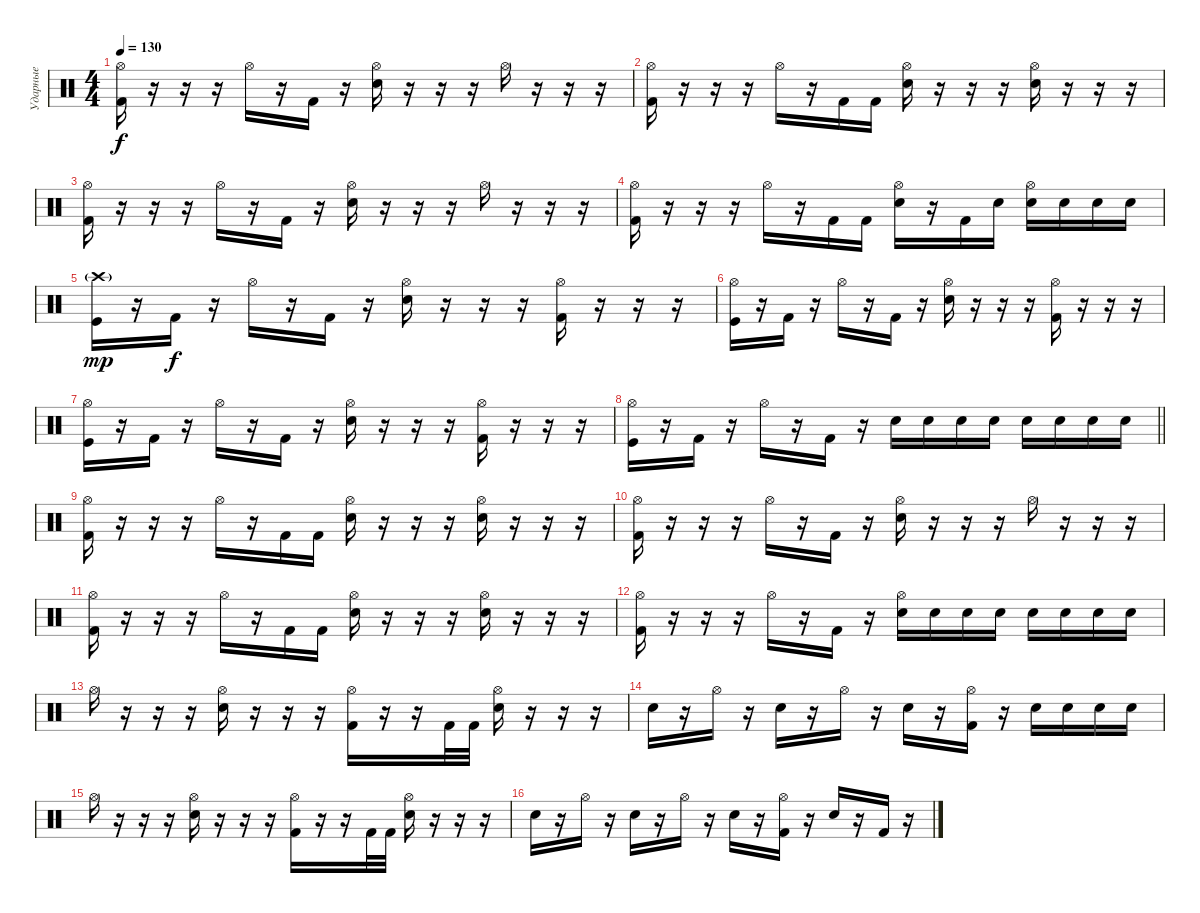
\track ("Ударные" "Ударные") {instrument percussion}
\staff {score}
\articulation defaults
\ts (4 4)
\tempo 130
\clef neutral
\ks c
("Hi-Hat (open)" "Kick (hit) 2").16{dy f} r.16 r.16 r.16 "Hi-Hat (open)".16 r.16 "Kick (hit) 2".16 r.16 ("Hi-Hat (open)" "Electric Snare (hit)").16 r.16 r.16 r.16 "Hi-Hat (open)".16 r.16 r.16 r.16 |
("Hi-Hat (open)" "Kick (hit) 2").16 r.16 r.16 r.16 "Hi-Hat (open)".16 r.16 "Kick (hit) 2".16 "Kick (hit) 2".16 ("Hi-Hat (open)" "Electric Snare (hit)").16 r.16 r.16 r.16 ("Hi-Hat (open)" "Electric Snare (hit)").16 r.16 r.16 r.16 |
("Hi-Hat (open)" "Kick (hit) 2").16 r.16 r.16 r.16 "Hi-Hat (open)".16 r.16 "Kick (hit) 2".16 r.16 ("Hi-Hat (open)" "Electric Snare (hit)").16 r.16 r.16 r.16 "Hi-Hat (open)".16 r.16 r.16 r.16 |
("Hi-Hat (open)" "Kick (hit) 2").16 r.16 r.16 r.16 "Hi-Hat (open)".16 r.16 "Kick (hit) 2".16 "Kick (hit) 2".16 ("Hi-Hat (open)" "Electric Snare (hit)").16 r.16 "Kick (hit) 2".16 "Electric Snare (hit)".16 ("Hi-Hat (open)" "Electric Snare (hit)").16 "Electric Snare (hit)".16 "Electric Snare (hit)".16 "Electric Snare (hit)".16 |
("Crash high (hit)"{g} "Kick (hit)").16{dy mp} r.16 "Kick (hit) 2".16{dy f} r.16 "Hi-Hat (open)".16 r.16 "Kick (hit) 2".16 r.16 ("Hi-Hat (open)" "Electric Snare (hit)").16 r.16 r.16 r.16 ("Hi-Hat (open)" "Kick (hit) 2").16 r.16 r.16 r.16 |
("Hi-Hat (open)" "Kick (hit)").16 r.16 "Kick (hit) 2".16 r.16 "Hi-Hat (open)".16 r.16 "Kick (hit) 2".16 r.16 ("Hi-Hat (open)" "Electric Snare (hit)").16 r.16 r.16 r.16 ("Hi-Hat (open)" "Kick (hit) 2").16 r.16 r.16 r.16 |
("Hi-Hat (open)" "Kick (hit)").16 r.16 "Kick (hit) 2".16 r.16 "Hi-Hat (open)".16 r.16 "Kick (hit) 2".16 r.16 ("Hi-Hat (open)" "Electric Snare (hit)").16 r.16 r.16 r.16 ("Hi-Hat (open)" "Kick (hit) 2").16 r.16 r.16 r.16 |
\barLineRight lightlight
("Hi-Hat (open)" "Kick (hit)").16 r.16 "Kick (hit) 2".16 r.16 "Hi-Hat (open)".16 r.16 "Kick (hit) 2".16 r.16 "Snare (hit) 2".16 "Electric Snare (hit)".16 "Electric Snare (hit)".16 "Electric Snare (hit)".16 "Snare (hit) 2".16 "Snare (hit) 2".16 "Snare (hit) 2".16 "Snare (hit) 2".16 |
("Hi-Hat (open)" "Kick (hit) 2").16 r.16 r.16 r.16 "Hi-Hat (open)".16 r.16 "Kick (hit) 2".16 "Kick (hit) 2".16 ("Hi-Hat (open)" "Electric Snare (hit)").16 r.16 r.16 r.16 ("Hi-Hat (open)" "Electric Snare (hit)").16 r.16 r.16 r.16 |
("Hi-Hat (open)" "Kick (hit) 2").16 r.16 r.16 r.16 "Hi-Hat (open)".16 r.16 "Kick (hit) 2".16 r.16 ("Hi-Hat (open)" "Electric Snare (hit)").16 r.16 r.16 r.16 "Hi-Hat (open)".16 r.16 r.16 r.16 |
("Hi-Hat (open)" "Kick (hit) 2").16 r.16 r.16 r.16 "Hi-Hat (open)".16 r.16 "Kick (hit) 2".16 "Kick (hit) 2".16 ("Hi-Hat (open)" "Electric Snare (hit)").16 r.16 r.16 r.16 ("Hi-Hat (open)" "Electric Snare (hit)").16 r.16 r.16 r.16 |
("Hi-Hat (open)" "Kick (hit) 2").16 r.16 r.16 r.16 "Hi-Hat (open)".16 r.16 "Kick (hit) 2".16 r.16 ("Hi-Hat (open)" "Electric Snare (hit)").16 "Electric Snare (hit)".16 "Electric Snare (hit)".16 "Electric Snare (hit)".16 "Snare (hit) 2".16 "Snare (hit) 2".16 "Snare (hit) 2".16 "Snare (hit) 2".16 |
"Hi-Hat (open)".16 r.16 r.16 r.16 ("Hi-Hat (open)" "Electric Snare (hit)").16 r.16 r.16 r.16 ("Hi-Hat (open)" "Kick (hit) 2").16 r.16 r.16 "Kick (hit) 2".32 "Kick (hit) 2".32 ("Hi-Hat (open)" "Electric Snare (hit)").16 r.16 r.16 r.16 |
"Electric Snare (hit)".16 r.16 "Hi-Hat (open)".16 r.16 "Electric Snare (hit)".16 r.16 "Hi-Hat (open)".16 r.16 "Electric Snare (hit)".16 r.16 ("Hi-Hat (open)" "Kick (hit) 2").16 r.16 "Electric Snare (hit)".16 "Electric Snare (hit)".16 "Electric Snare (hit)".16 "Electric Snare (hit)".16 |
"Hi-Hat (open)".16 r.16 r.16 r.16 ("Hi-Hat (open)" "Electric Snare (hit)").16 r.16 r.16 r.16 ("Hi-Hat (open)" "Kick (hit) 2").16 r.16 r.16 "Kick (hit) 2".32 "Kick (hit) 2".32 ("Hi-Hat (open)" "Electric Snare (hit)").16 r.16 r.16 r.16 |
"Electric Snare (hit)".16 r.16 "Hi-Hat (open)".16 r.16 "Electric Snare (hit)".16 r.16 "Hi-Hat (open)".16 r.16 "Electric Snare (hit)".16 r.16 ("Hi-Hat (open)" "Kick (hit) 2").16 r.16 "Electric Snare (hit)".16 r.16 "Kick (hit) 2".16 r.16
